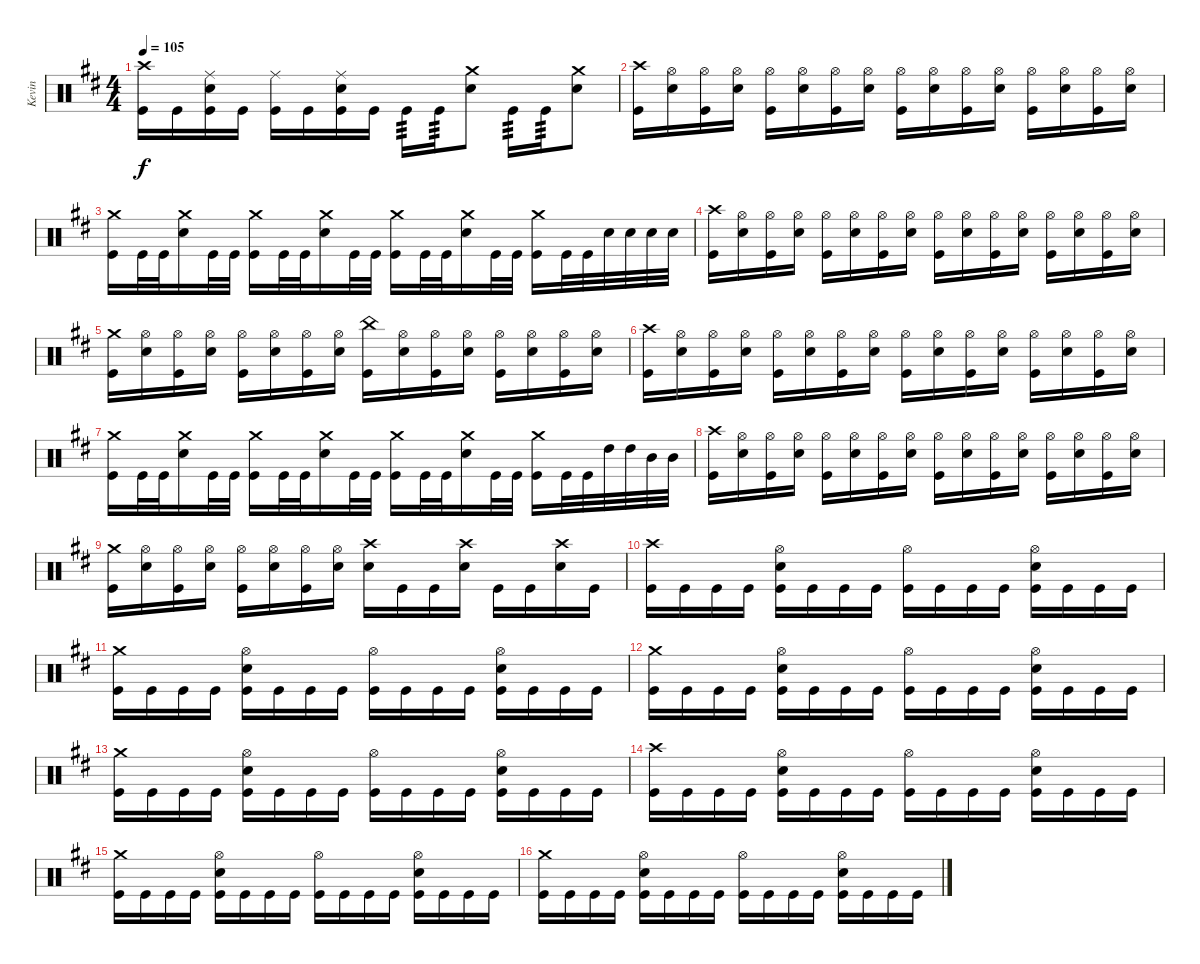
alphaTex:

\track ("Kevin" "Kevin") {instrument percussion}
\staff {score}
\articulation defaults
\ts (4 4)
\tempo 105
\clef neutral
\ks d
("Crash high (hit)" "Kick (hit)").16{dy f} "Kick (hit)".16 ("Ride (middle)" "Snare (hit) 2" "Kick (hit)").16 "Kick (hit)".16 ("Ride (middle)" "Kick (hit)").16 "Kick (hit)".16 ("Ride (middle)" "Snare (hit) 2" "Kick (hit)").16 "Kick (hit)".16 "Kick (hit)".16{tp 3} "Kick (hit)".16{tp 3} ("Crash medium (hit)" "Snare (hit) 2").8 "Kick (hit)".16{tp 3} "Kick (hit)".16{tp 3} ("Crash medium (hit)" "Snare (hit) 2").8 |
("Crash high (hit)" "Kick (hit)").16 ("Hi-Hat (open)" "Snare (hit) 2").16 ("Hi-Hat (open)" "Kick (hit)").16 ("Hi-Hat (open)" "Snare (hit) 2").16 ("Hi-Hat (open)" "Kick (hit)").16 ("Hi-Hat (open)" "Snare (hit) 2").16 ("Hi-Hat (open)" "Kick (hit)").16 ("Hi-Hat (open)" "Snare (hit) 2").16 ("Hi-Hat (open)" "Kick (hit)").16 ("Hi-Hat (open)" "Snare (hit) 2").16 ("Hi-Hat (open)" "Kick (hit)").16 ("Hi-Hat (open)" "Snare (hit) 2").16 ("Hi-Hat (open)" "Kick (hit)").16 ("Hi-Hat (open)" "Snare (hit) 2").16 ("Hi-Hat (open)" "Kick (hit)").16 ("Hi-Hat (open)" "Snare (hit) 2").16 |
("Crash medium (hit)" "Kick (hit)").16 "Kick (hit)".32 "Kick (hit)".32 ("Crash medium (hit)" "Snare (hit) 2").16 "Kick (hit)".32 "Kick (hit)".32 ("Crash medium (hit)" "Kick (hit)").16 "Kick (hit)".32 "Kick (hit)".32 ("Crash medium (hit)" "Snare (hit) 2").16 "Kick (hit)".32 "Kick (hit)".32 ("Crash medium (hit)" "Kick (hit)").16 "Kick (hit)".32 "Kick (hit)".32 ("Crash medium (hit)" "Snare (hit) 2").16 "Kick (hit)".32 "Kick (hit)".32 ("Crash medium (hit)" "Kick (hit)").16 "Kick (hit)".32 "Kick (hit)".32 "Snare (hit) 2".32 "Snare (hit) 2".32 "Snare (hit) 2".32 "Snare (hit) 2".32 |
("Crash high (hit)" "Kick (hit)").16 ("Hi-Hat (open)" "Snare (hit) 2").16 ("Hi-Hat (open)" "Kick (hit)").16 ("Hi-Hat (open)" "Snare (hit) 2").16 ("Hi-Hat (open)" "Kick (hit)").16 ("Hi-Hat (open)" "Snare (hit) 2").16 ("Hi-Hat (open)" "Kick (hit)").16 ("Hi-Hat (open)" "Snare (hit) 2").16 ("Hi-Hat (open)" "Kick (hit)").16 ("Hi-Hat (open)" "Snare (hit) 2").16 ("Hi-Hat (open)" "Kick (hit)").16 ("Hi-Hat (open)" "Snare (hit) 2").16 ("Hi-Hat (open)" "Kick (hit)").16 ("Hi-Hat (open)" "Snare (hit) 2").16 ("Hi-Hat (open)" "Kick (hit)").16 ("Hi-Hat (open)" "Snare (hit) 2").16 |
("Crash medium (hit)" "Kick (hit)").16 ("Hi-Hat (open)" "Snare (hit) 2").16 ("Hi-Hat (open)" "Kick (hit)").16 ("Hi-Hat (open)" "Snare (hit) 2").16 ("Hi-Hat (open)" "Kick (hit)").16 ("Hi-Hat (open)" "Snare (hit) 2").16 ("Hi-Hat (open)" "Kick (hit)").16 ("Hi-Hat (open)" "Snare (hit) 2").16 ("China (hit)" "Kick (hit)").16 ("Hi-Hat (open)" "Snare (hit) 2").16 ("Hi-Hat (open)" "Kick (hit)").16 ("Hi-Hat (open)" "Snare (hit) 2").16 ("Hi-Hat (open)" "Kick (hit)").16 ("Hi-Hat (open)" "Snare (hit) 2").16 ("Hi-Hat (open)" "Kick (hit)").16 ("Hi-Hat (open)" "Snare (hit) 2").16 |
("Crash high (hit)" "Kick (hit)").16 ("Hi-Hat (open)" "Snare (hit) 2").16 ("Hi-Hat (open)" "Kick (hit)").16 ("Hi-Hat (open)" "Snare (hit) 2").16 ("Hi-Hat (open)" "Kick (hit)").16 ("Hi-Hat (open)" "Snare (hit) 2").16 ("Hi-Hat (open)" "Kick (hit)").16 ("Hi-Hat (open)" "Snare (hit) 2").16 ("Hi-Hat (open)" "Kick (hit)").16 ("Hi-Hat (open)" "Snare (hit) 2").16 ("Hi-Hat (open)" "Kick (hit)").16 ("Hi-Hat (open)" "Snare (hit) 2").16 ("Hi-Hat (open)" "Kick (hit)").16 ("Hi-Hat (open)" "Snare (hit) 2").16 ("Hi-Hat (open)" "Kick (hit)").16 ("Hi-Hat (open)" "Snare (hit) 2").16 |
("Crash medium (hit)" "Kick (hit)").16 "Kick (hit)".32 "Kick (hit)".32 ("Crash medium (hit)" "Snare (hit) 2").16 "Kick (hit)".32 "Kick (hit)".32 ("Crash medium (hit)" "Kick (hit)").16 "Kick (hit)".32 "Kick (hit)".32 ("Crash medium (hit)" "Snare (hit) 2").16 "Kick (hit)".32 "Kick (hit)".32 ("Crash medium (hit)" "Kick (hit)").16 "Kick (hit)".32 "Kick (hit)".32 ("Crash medium (hit)" "Snare (hit) 2").16 "Kick (hit)".32 "Kick (hit)".32 ("Crash medium (hit)" "Kick (hit)").16 "Kick (hit)".32 "Kick (hit)".32 "High Tom (hit)".32 "High Tom (hit)".32 "Mid Tom (hit)".32 "Mid Tom (hit)".32 |
("Crash high (hit)" "Kick (hit)").16 ("Hi-Hat (open)" "Snare (hit) 2").16 ("Hi-Hat (open)" "Kick (hit)").16 ("Hi-Hat (open)" "Snare (hit) 2").16 ("Hi-Hat (open)" "Kick (hit)").16 ("Hi-Hat (open)" "Snare (hit) 2").16 ("Hi-Hat (open)" "Kick (hit)").16 ("Hi-Hat (open)" "Snare (hit) 2").16 ("Hi-Hat (open)" "Kick (hit)").16 ("Hi-Hat (open)" "Snare (hit) 2").16 ("Hi-Hat (open)" "Kick (hit)").16 ("Hi-Hat (open)" "Snare (hit) 2").16 ("Hi-Hat (open)" "Kick (hit)").16 ("Hi-Hat (open)" "Snare (hit) 2").16 ("Hi-Hat (open)" "Kick (hit)").16 ("Hi-Hat (open)" "Snare (hit) 2").16 |
("Crash medium (hit)" "Kick (hit)").16 ("Hi-Hat (open)" "Snare (hit) 2").16 ("Hi-Hat (open)" "Kick (hit)").16 ("Hi-Hat (open)" "Snare (hit) 2").16 ("Hi-Hat (open)" "Kick (hit)").16 ("Hi-Hat (open)" "Snare (hit) 2").16 ("Hi-Hat (open)" "Kick (hit)").16 ("Hi-Hat (open)" "Snare (hit) 2").16 ("Crash high (hit)" "Snare (hit) 2").16 "Kick (hit)".16 "Kick (hit)".16 ("Crash high (hit)" "Snare (hit) 2").16 "Kick (hit)".16 "Kick (hit)".16 ("Crash high (hit)" "Snare (hit) 2").16 "Kick (hit)".16 |
("Crash high (hit)" "Kick (hit)").16 "Kick (hit)".16 "Kick (hit)".16 "Kick (hit)".16 ("Hi-Hat (open)" "Snare (hit) 2" "Kick (hit)").16 "Kick (hit)".16 "Kick (hit)".16 "Kick (hit)".16 ("Hi-Hat (open)" "Kick (hit)").16 "Kick (hit)".16 "Kick (hit)".16 "Kick (hit)".16 ("Hi-Hat (open)" "Snare (hit) 2" "Kick (hit)").16 "Kick (hit)".16 "Kick (hit)".16 "Kick (hit)".16 |
("Crash medium (hit)" "Kick (hit)").16 "Kick (hit)".16 "Kick (hit)".16 "Kick (hit)".16 ("Hi-Hat (open)" "Snare (hit) 2" "Kick (hit)").16 "Kick (hit)".16 "Kick (hit)".16 "Kick (hit)".16 ("Hi-Hat (open)" "Kick (hit)").16 "Kick (hit)".16 "Kick (hit)".16 "Kick (hit)".16 ("Hi-Hat (open)" "Snare (hit) 2" "Kick (hit)").16 "Kick (hit)".16 "Kick (hit)".16 "Kick (hit)".16 |
("Crash medium (hit)" "Kick (hit)").16 "Kick (hit)".16 "Kick (hit)".16 "Kick (hit)".16 ("Hi-Hat (open)" "Snare (hit) 2" "Kick (hit)").16 "Kick (hit)".16 "Kick (hit)".16 "Kick (hit)".16 ("Hi-Hat (open)" "Kick (hit)").16 "Kick (hit)".16 "Kick (hit)".16 "Kick (hit)".16 ("Hi-Hat (open)" "Snare (hit) 2" "Kick (hit)").16 "Kick (hit)".16 "Kick (hit)".16 "Kick (hit)".16 |
("Crash medium (hit)" "Kick (hit)").16 "Kick (hit)".16 "Kick (hit)".16 "Kick (hit)".16 ("Hi-Hat (open)" "Snare (hit) 2" "Kick (hit)").16 "Kick (hit)".16 "Kick (hit)".16 "Kick (hit)".16 ("Hi-Hat (open)" "Kick (hit)").16 "Kick (hit)".16 "Kick (hit)".16 "Kick (hit)".16 ("Hi-Hat (open)" "Snare (hit) 2" "Kick (hit)").16 "Kick (hit)".16 "Kick (hit)".16 "Kick (hit)".16 |
("Crash high (hit)" "Kick (hit)").16 "Kick (hit)".16 "Kick (hit)".16 "Kick (hit)".16 ("Hi-Hat (open)" "Snare (hit) 2" "Kick (hit)").16 "Kick (hit)".16 "Kick (hit)".16 "Kick (hit)".16 ("Hi-Hat (open)" "Kick (hit)").16 "Kick (hit)".16 "Kick (hit)".16 "Kick (hit)".16 ("Hi-Hat (open)" "Snare (hit) 2" "Kick (hit)").16 "Kick (hit)".16 "Kick (hit)".16 "Kick (hit)".16 |
("Crash medium (hit)" "Kick (hit)").16 "Kick (hit)".16 "Kick (hit)".16 "Kick (hit)".16 ("Hi-Hat (open)" "Snare (hit) 2" "Kick (hit)").16 "Kick (hit)".16 "Kick (hit)".16 "Kick (hit)".16 ("Hi-Hat (open)" "Kick (hit)").16 "Kick (hit)".16 "Kick (hit)".16 "Kick (hit)".16 ("Hi-Hat (open)" "Snare (hit) 2" "Kick (hit)").16 "Kick (hit)".16 "Kick (hit)".16 "Kick (hit)".16 |
("Crash medium (hit)" "Kick (hit)").16 "Kick (hit)".16 "Kick (hit)".16 "Kick (hit)".16 ("Hi-Hat (open)" "Snare (hit) 2" "Kick (hit)").16 "Kick (hit)".16 "Kick (hit)".16 "Kick (hit)".16 ("Hi-Hat (open)" "Kick (hit)").16 "Kick (hit)".16 "Kick (hit)".16 "Kick (hit)".16 ("Hi-Hat (open)" "Snare (hit) 2" "Kick (hit)").16 "Kick (hit)".16 "Kick (hit)".16 "Kick (hit)".16
